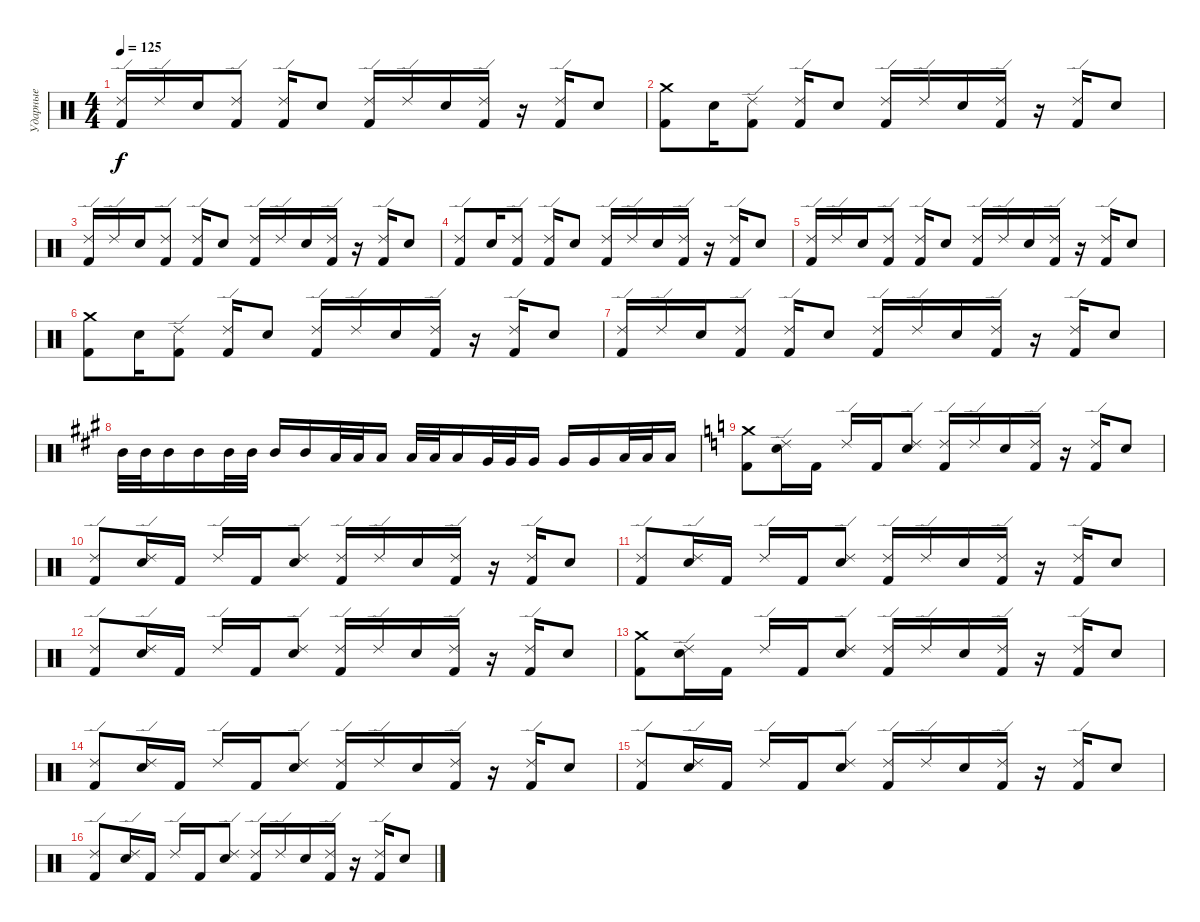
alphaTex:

\track ("Ударные" "Ударные") {instrument percussion}
\staff {score}
\articulation defaults
\ts (4 4)
\tempo 125
\clef neutral
\ks c
("Ride (edge) 2" "Kick (hit) 2").16{dy f} "Ride (edge) 2".16 "Snare (hit) 2".16 ("Ride (edge) 2" "Kick (hit) 2").8 ("Ride (edge) 2" "Kick (hit) 2").16 "Snare (hit) 2".8 ("Ride (edge) 2" "Kick (hit) 2").16 "Ride (edge) 2".16 "Snare (hit) 2".16 ("Ride (edge) 2" "Kick (hit) 2").16 r.16 ("Ride (edge) 2" "Kick (hit) 2").16 "Snare (hit) 2".8 |
("Crash medium (hit)" "Kick (hit) 2").8 "Snare (hit) 2".16 ("Ride (edge) 2" "Kick (hit) 2").8 ("Ride (edge) 2" "Kick (hit) 2").16 "Snare (hit) 2".8 ("Ride (edge) 2" "Kick (hit) 2").16 "Ride (edge) 2".16 "Snare (hit) 2".16 ("Ride (edge) 2" "Kick (hit) 2").16 r.16 ("Ride (edge) 2" "Kick (hit) 2").16 "Snare (hit) 2".8 |
("Ride (edge) 2" "Kick (hit) 2").16 "Ride (edge) 2".16 "Snare (hit) 2".16 ("Ride (edge) 2" "Kick (hit) 2").8 ("Ride (edge) 2" "Kick (hit) 2").16 "Snare (hit) 2".8 ("Ride (edge) 2" "Kick (hit) 2").16 "Ride (edge) 2".16 "Snare (hit) 2".16 ("Ride (edge) 2" "Kick (hit) 2").16 r.16 ("Ride (edge) 2" "Kick (hit) 2").16 "Snare (hit) 2".8 |
("Ride (edge) 2" "Kick (hit) 2").8 "Snare (hit) 2".16 ("Ride (edge) 2" "Kick (hit) 2").8 ("Ride (edge) 2" "Kick (hit) 2").16 "Snare (hit) 2".8 ("Ride (edge) 2" "Kick (hit) 2").16 "Ride (edge) 2".16 "Snare (hit) 2".16 ("Ride (edge) 2" "Kick (hit) 2").16 r.16 ("Ride (edge) 2" "Kick (hit) 2").16 "Snare (hit) 2".8 |
("Ride (edge) 2" "Kick (hit) 2").16 "Ride (edge) 2".16 "Snare (hit) 2".16 ("Ride (edge) 2" "Kick (hit) 2").8 ("Ride (edge) 2" "Kick (hit) 2").16 "Snare (hit) 2".8 ("Ride (edge) 2" "Kick (hit) 2").16 "Ride (edge) 2".16 "Snare (hit) 2".16 ("Ride (edge) 2" "Kick (hit) 2").16 r.16 ("Ride (edge) 2" "Kick (hit) 2").16 "Snare (hit) 2".8 |
("Crash medium (hit)" "Kick (hit) 2").8 "Snare (hit) 2".16 ("Ride (edge) 2" "Kick (hit) 2").8 ("Ride (edge) 2" "Kick (hit) 2").16 "Snare (hit) 2".8 ("Ride (edge) 2" "Kick (hit) 2").16 "Ride (edge) 2".16 "Snare (hit) 2".16 ("Ride (edge) 2" "Kick (hit) 2").16 r.16 ("Ride (edge) 2" "Kick (hit) 2").16 "Snare (hit) 2".8 |
("Ride (edge) 2" "Kick (hit) 2").16 "Ride (edge) 2".16 "Snare (hit) 2".16 ("Ride (edge) 2" "Kick (hit) 2").8 ("Ride (edge) 2" "Kick (hit) 2").16 "Snare (hit) 2".8 ("Ride (edge) 2" "Kick (hit) 2").16 "Ride (edge) 2".16 "Snare (hit) 2".16 ("Ride (edge) 2" "Kick (hit) 2").16 r.16 ("Ride (edge) 2" "Kick (hit) 2").16 "Snare (hit) 2".8 |
\ks a "Mid Tom (hit)".32 "Mid Tom (hit)".32 "Mid Tom (hit)".16 "Mid Tom (hit)".16 "Mid Tom (hit)".32 "Mid Tom (hit)".32 "Mid Tom (hit)".16 "Mid Tom (hit)".16 "Low Tom (hit)".32 "Low Tom (hit)".32 "Low Tom (hit)".16 "Low Tom (hit)".32 "Low Tom (hit)".32 "Low Tom (hit)".16 "Very Low Tom (hit)".32 "Very Low Tom (hit)".32 "Very Low Tom (hit)".16 "Very Low Tom (hit)".16 "Very Low Tom (hit)".16 "Low Floor Tom (hit)".32 "Low Floor Tom (hit)".32 "Low Floor Tom (hit)".16
|
\ks c
("Crash medium (hit)" "Kick (hit) 2").8 ("Ride (edge) 2" "Snare (hit) 2").16 "Kick (hit) 2".16 "Ride (edge) 2".16 "Kick (hit) 2".16 ("Ride (edge) 2" "Snare (hit) 2").8 ("Ride (edge) 2" "Kick (hit) 2").16 "Ride (edge) 2".16 "Snare (hit) 2".16 ("Ride (edge) 2" "Kick (hit) 2").16 r.16 ("Ride (edge) 2" "Kick (hit) 2").16 "Snare (hit) 2".8 |
("Ride (edge) 2" "Kick (hit) 2").8 ("Ride (edge) 2" "Snare (hit) 2").16 "Kick (hit) 2".16 "Ride (edge) 2".16 "Kick (hit) 2".16 ("Ride (edge) 2" "Snare (hit) 2").8 ("Ride (edge) 2" "Kick (hit) 2").16 "Ride (edge) 2".16 "Snare (hit) 2".16 ("Ride (edge) 2" "Kick (hit) 2").16 r.16 ("Ride (edge) 2" "Kick (hit) 2").16 "Snare (hit) 2".8 |
("Ride (edge) 2" "Kick (hit) 2").8 ("Ride (edge) 2" "Snare (hit) 2").16 "Kick (hit) 2".16 "Ride (edge) 2".16 "Kick (hit) 2".16 ("Ride (edge) 2" "Snare (hit) 2").8 ("Ride (edge) 2" "Kick (hit) 2").16 "Ride (edge) 2".16 "Snare (hit) 2".16 ("Ride (edge) 2" "Kick (hit) 2").16 r.16 ("Ride (edge) 2" "Kick (hit) 2").16 "Snare (hit) 2".8 |
("Ride (edge) 2" "Kick (hit) 2").8 ("Ride (edge) 2" "Snare (hit) 2").16 "Kick (hit) 2".16 "Ride (edge) 2".16 "Kick (hit) 2".16 ("Ride (edge) 2" "Snare (hit) 2").8 ("Ride (edge) 2" "Kick (hit) 2").16 "Ride (edge) 2".16 "Snare (hit) 2".16 ("Ride (edge) 2" "Kick (hit) 2").16 r.16 ("Ride (edge) 2" "Kick (hit) 2").16 "Snare (hit) 2".8 |
("Crash medium (hit)" "Kick (hit) 2").8 ("Ride (edge) 2" "Snare (hit) 2").16 "Kick (hit) 2".16 "Ride (edge) 2".16 "Kick (hit) 2".16 ("Ride (edge) 2" "Snare (hit) 2").8 ("Ride (edge) 2" "Kick (hit) 2").16 "Ride (edge) 2".16 "Snare (hit) 2".16 ("Ride (edge) 2" "Kick (hit) 2").16 r.16 ("Ride (edge) 2" "Kick (hit) 2").16 "Snare (hit) 2".8 |
("Ride (edge) 2" "Kick (hit) 2").8 ("Ride (edge) 2" "Snare (hit) 2").16 "Kick (hit) 2".16 "Ride (edge) 2".16 "Kick (hit) 2".16 ("Ride (edge) 2" "Snare (hit) 2").8 ("Ride (edge) 2" "Kick (hit) 2").16 "Ride (edge) 2".16 "Snare (hit) 2".16 ("Ride (edge) 2" "Kick (hit) 2").16 r.16 ("Ride (edge) 2" "Kick (hit) 2").16 "Snare (hit) 2".8 |
("Ride (edge) 2" "Kick (hit) 2").8 ("Ride (edge) 2" "Snare (hit) 2").16 "Kick (hit) 2".16 "Ride (edge) 2".16 "Kick (hit) 2".16 ("Ride (edge) 2" "Snare (hit) 2").8 ("Ride (edge) 2" "Kick (hit) 2").16 "Ride (edge) 2".16 "Snare (hit) 2".16 ("Ride (edge) 2" "Kick (hit) 2").16 r.16 ("Ride (edge) 2" "Kick (hit) 2").16 "Snare (hit) 2".8 |
("Ride (edge) 2" "Kick (hit) 2").8 ("Ride (edge) 2" "Snare (hit) 2").16 "Kick (hit) 2".16 "Ride (edge) 2".16 "Kick (hit) 2".16 ("Ride (edge) 2" "Snare (hit) 2").8 ("Ride (edge) 2" "Kick (hit) 2").16 "Ride (edge) 2".16 "Snare (hit) 2".16 ("Ride (edge) 2" "Kick (hit) 2").16 r.16 ("Ride (edge) 2" "Kick (hit) 2").16 "Snare (hit) 2".8
